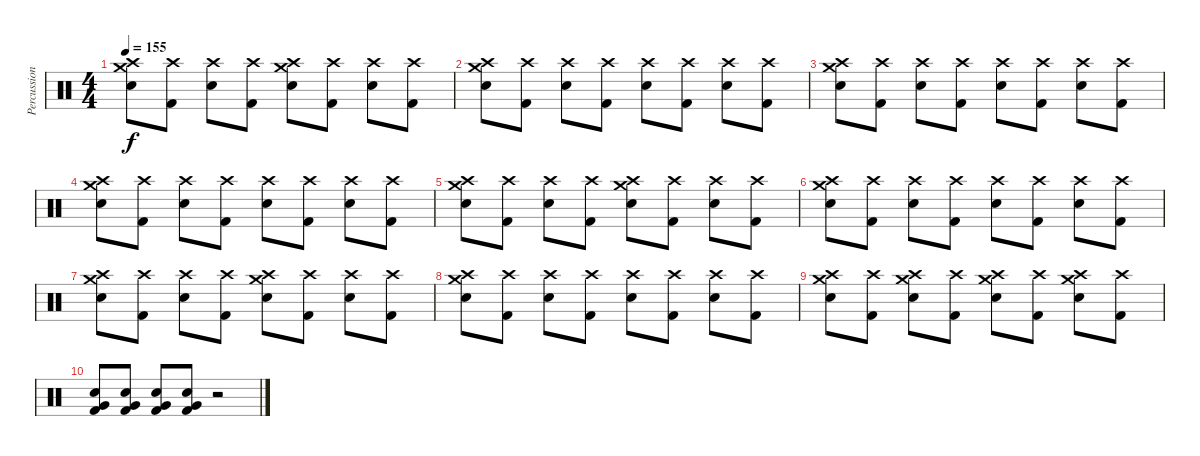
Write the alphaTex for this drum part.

\track ("Percussion" "Percussion") {instrument percussion}
\staff {score}
\articulation defaults
\ts (4 4)
\tempo 155
\clef neutral
\ks c
("Crash high (hit)" "Snare (hit) 2" "Crash medium (hit)").8{dy f} ("Crash high (hit)" "Kick (hit) 2").8 ("Crash high (hit)" "Snare (hit) 2").8 ("Crash high (hit)" "Kick (hit) 2").8 ("Crash high (hit)" "Snare (hit) 2" "Crash medium (hit)").8 ("Crash high (hit)" "Kick (hit) 2").8 ("Crash high (hit)" "Snare (hit) 2").8 ("Crash high (hit)" "Kick (hit) 2").8 |
("Crash high (hit)" "Snare (hit) 2" "Crash medium (hit)").8 ("Crash high (hit)" "Kick (hit) 2").8 ("Crash high (hit)" "Snare (hit) 2").8 ("Crash high (hit)" "Kick (hit) 2").8 ("Crash high (hit)" "Snare (hit) 2").8 ("Crash high (hit)" "Kick (hit) 2").8 ("Crash high (hit)" "Snare (hit) 2").8 ("Crash high (hit)" "Kick (hit) 2").8 |
("Crash high (hit)" "Snare (hit) 2" "Crash medium (hit)").8 ("Crash high (hit)" "Kick (hit) 2").8 ("Crash high (hit)" "Snare (hit) 2").8 ("Crash high (hit)" "Kick (hit) 2").8 ("Crash high (hit)" "Snare (hit) 2").8 ("Crash high (hit)" "Kick (hit) 2").8 ("Crash high (hit)" "Snare (hit) 2").8 ("Crash high (hit)" "Kick (hit) 2").8 |
("Crash high (hit)" "Snare (hit) 2" "Crash medium (hit)").8 ("Crash high (hit)" "Kick (hit) 2").8 ("Crash high (hit)" "Snare (hit) 2").8 ("Crash high (hit)" "Kick (hit) 2").8 ("Crash high (hit)" "Snare (hit) 2").8 ("Crash high (hit)" "Kick (hit) 2").8 ("Crash high (hit)" "Snare (hit) 2").8 ("Crash high (hit)" "Kick (hit) 2").8 |
("Crash high (hit)" "Snare (hit) 2" "Crash medium (hit)").8 ("Crash high (hit)" "Kick (hit) 2").8 ("Crash high (hit)" "Snare (hit) 2").8 ("Crash high (hit)" "Kick (hit) 2").8 ("Crash high (hit)" "Snare (hit) 2" "Crash medium (hit)").8 ("Crash high (hit)" "Kick (hit) 2").8 ("Crash high (hit)" "Snare (hit) 2").8 ("Crash high (hit)" "Kick (hit) 2").8 |
("Crash high (hit)" "Snare (hit) 2" "Crash medium (hit)").8 ("Crash high (hit)" "Kick (hit) 2").8 ("Crash high (hit)" "Snare (hit) 2").8 ("Crash high (hit)" "Kick (hit) 2").8 ("Crash high (hit)" "Snare (hit) 2").8 ("Crash high (hit)" "Kick (hit) 2").8 ("Crash high (hit)" "Snare (hit) 2").8 ("Crash high (hit)" "Kick (hit) 2").8 |
("Crash high (hit)" "Snare (hit) 2" "Crash medium (hit)").8 ("Crash high (hit)" "Kick (hit) 2").8 ("Crash high (hit)" "Snare (hit) 2").8 ("Crash high (hit)" "Kick (hit) 2").8 ("Crash high (hit)" "Snare (hit) 2" "Crash medium (hit)").8 ("Crash high (hit)" "Kick (hit) 2").8 ("Crash high (hit)" "Snare (hit) 2").8 ("Crash high (hit)" "Kick (hit) 2").8 |
("Crash high (hit)" "Snare (hit) 2" "Crash medium (hit)").8 ("Crash high (hit)" "Kick (hit) 2").8 ("Crash high (hit)" "Snare (hit) 2").8 ("Crash high (hit)" "Kick (hit) 2").8 ("Crash high (hit)" "Snare (hit) 2").8 ("Crash high (hit)" "Kick (hit) 2").8 ("Crash high (hit)" "Snare (hit) 2").8 ("Crash high (hit)" "Kick (hit) 2").8 |
("Crash high (hit)" "Snare (hit) 2" "Crash medium (hit)").8 ("Crash high (hit)" "Kick (hit) 2").8 ("Crash high (hit)" "Snare (hit) 2" "Crash medium (hit)").8 ("Crash high (hit)" "Kick (hit) 2").8 ("Crash high (hit)" "Snare (hit) 2" "Crash medium (hit)").8 ("Crash high (hit)" "Kick (hit) 2").8 ("Crash high (hit)" "Snare (hit) 2" "Crash medium (hit)").8 ("Crash high (hit)" "Kick (hit) 2").8 |
("Snare (hit) 2" "Very Low Tom (hit)" "Kick (hit) 2").8 ("Snare (hit) 2" "Very Low Tom (hit)" "Kick (hit) 2").8 ("Snare (hit) 2" "Very Low Tom (hit)" "Kick (hit) 2").8 ("Snare (hit) 2" "Very Low Tom (hit)" "Kick (hit) 2").8 r.2
